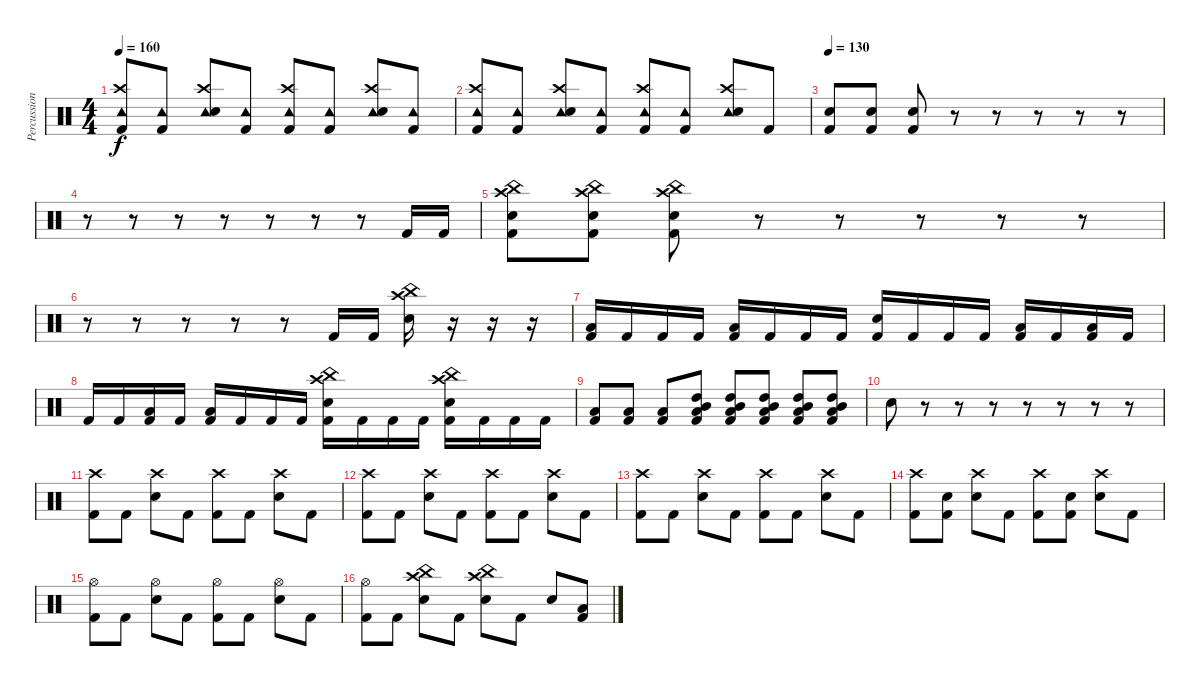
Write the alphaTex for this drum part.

\track ("Percussion" "Percussion") {instrument percussion}
\staff {score}
\articulation defaults
\ts (4 4)
\tempo 160
\clef neutral
\ks c
("Tambourine (hit)" "Crash high (hit)" "Kick (hit) 2").8{dy f} ("Tambourine (hit)" "Kick (hit) 2").8 ("Tambourine (hit)" "Crash high (hit)" "Snare (hit) 2").8 ("Tambourine (hit)" "Kick (hit) 2").8 ("Tambourine (hit)" "Crash high (hit)" "Kick (hit) 2").8 ("Tambourine (hit)" "Kick (hit) 2").8 ("Tambourine (hit)" "Crash high (hit)" "Snare (hit) 2").8 ("Tambourine (hit)" "Kick (hit) 2").8 |
("Tambourine (hit)" "Crash high (hit)" "Kick (hit) 2").8 ("Tambourine (hit)" "Kick (hit) 2").8 ("Tambourine (hit)" "Crash high (hit)" "Snare (hit) 2").8 ("Tambourine (hit)" "Kick (hit) 2").8 ("Tambourine (hit)" "Crash high (hit)" "Kick (hit) 2").8 ("Tambourine (hit)" "Kick (hit) 2").8 ("Tambourine (hit)" "Crash high (hit)" "Snare (hit) 2").8 "Kick (hit) 2".8 |
\tempo 130
("Snare (hit) 2" "Kick (hit) 2").8 ("Snare (hit) 2" "Kick (hit) 2").8 ("Snare (hit) 2" "Kick (hit) 2").8 r.8 r.8 r.8 r.8 r.8 |
r.8 r.8 r.8 r.8 r.8 r.8 r.8 "Kick (hit) 2".16 "Kick (hit) 2".16 |
("China (hit)" "Crash high (hit)" "Snare (hit) 2" "Kick (hit) 2").8 ("China (hit)" "Crash high (hit)" "Snare (hit) 2" "Kick (hit) 2").8 ("China (hit)" "Crash high (hit)" "Snare (hit) 2" "Kick (hit) 2").8 r.8 r.8 r.8 r.8 r.8 |
r.8 r.8 r.8 r.8 r.8 "Kick (hit) 2".16 "Kick (hit) 2".16 ("China (hit)" "Crash high (hit)" "Snare (hit) 2").16 r.16 r.16 r.16 |
("Low Tom (hit)" "Kick (hit) 2").16 "Kick (hit) 2".16 "Kick (hit) 2".16 "Kick (hit) 2".16 ("Low Tom (hit)" "Kick (hit) 2").16 "Kick (hit) 2".16 "Kick (hit) 2".16 "Kick (hit) 2".16 ("Snare (hit) 2" "Kick (hit) 2").16 "Kick (hit) 2".16 "Kick (hit) 2".16 "Kick (hit) 2".16 ("Low Tom (hit)" "Kick (hit) 2").16 "Kick (hit) 2".16 ("Low Tom (hit)" "Kick (hit) 2").16 "Kick (hit) 2".16 |
"Kick (hit) 2".16 "Kick (hit) 2".16 ("Low Tom (hit)" "Kick (hit) 2").16 "Kick (hit) 2".16 ("Low Tom (hit)" "Kick (hit) 2").16 "Kick (hit) 2".16 "Kick (hit) 2".16 "Kick (hit) 2".16 ("China (hit)" "Crash high (hit)" "Snare (hit) 2" "Kick (hit) 2").16 "Kick (hit) 2".16 "Kick (hit) 2".16 "Kick (hit) 2".16 ("China (hit)" "Crash high (hit)" "Snare (hit) 2" "Kick (hit) 2").16 "Kick (hit) 2".16 "Kick (hit) 2".16 "Kick (hit) 2".16 |
("Low Tom (hit)" "Kick (hit) 2").8 ("Low Tom (hit)" "Kick (hit) 2").8 ("Low Tom (hit)" "Kick (hit) 2").8 ("High Tom (hit)" "Mid Tom (hit)" "Low Tom (hit)" "Kick (hit) 2").8 ("High Tom (hit)" "Mid Tom (hit)" "Low Tom (hit)" "Kick (hit) 2").8 ("High Tom (hit)" "Mid Tom (hit)" "Low Tom (hit)" "Kick (hit) 2").8 ("High Tom (hit)" "Mid Tom (hit)" "Low Tom (hit)" "Kick (hit) 2").8 ("High Tom (hit)" "Mid Tom (hit)" "Low Tom (hit)" "Kick (hit) 2").8 |
"Snare (hit) 2".8 r.8 r.8 r.8 r.8 r.8 r.8 r.8 |
("Crash high (hit)" "Kick (hit) 2").8 "Kick (hit) 2".8 ("Crash high (hit)" "Snare (hit) 2").8 "Kick (hit) 2".8 ("Crash high (hit)" "Kick (hit) 2").8 "Kick (hit) 2".8 ("Crash high (hit)" "Snare (hit) 2").8 "Kick (hit) 2".8 |
("Crash high (hit)" "Kick (hit) 2").8 "Kick (hit) 2".8 ("Crash high (hit)" "Snare (hit) 2").8 "Kick (hit) 2".8 ("Crash high (hit)" "Kick (hit) 2").8 "Kick (hit) 2".8 ("Crash high (hit)" "Snare (hit) 2").8 "Kick (hit) 2".8 |
("Crash high (hit)" "Kick (hit) 2").8 "Kick (hit) 2".8 ("Crash high (hit)" "Snare (hit) 2").8 "Kick (hit) 2".8 ("Crash high (hit)" "Kick (hit) 2").8 "Kick (hit) 2".8 ("Crash high (hit)" "Snare (hit) 2").8 "Kick (hit) 2".8 |
("Crash high (hit)" "Kick (hit) 2").8 ("Snare (hit) 2" "Kick (hit) 2").8 ("Crash high (hit)" "Snare (hit) 2").8 "Kick (hit) 2".8 ("Crash high (hit)" "Kick (hit) 2").8 ("Snare (hit) 2" "Kick (hit) 2").8 ("Crash high (hit)" "Snare (hit) 2").8 "Kick (hit) 2".8 |
("Hi-Hat (open)" "Kick (hit) 2").8 "Kick (hit) 2".8 ("Hi-Hat (open)" "Snare (hit) 2").8 "Kick (hit) 2".8 ("Hi-Hat (open)" "Kick (hit) 2").8 "Kick (hit) 2".8 ("Hi-Hat (open)" "Snare (hit) 2").8 "Kick (hit) 2".8 |
("Hi-Hat (open)" "Kick (hit) 2").8 "Kick (hit) 2".8 ("China (hit)" "Crash high (hit)" "Snare (hit) 2").8 "Kick (hit) 2".8 ("China (hit)" "Crash high (hit)" "Snare (hit) 2").8 "Kick (hit) 2".8 "Snare (hit) 2".8 ("Low Tom (hit)" "Kick (hit) 2").8
